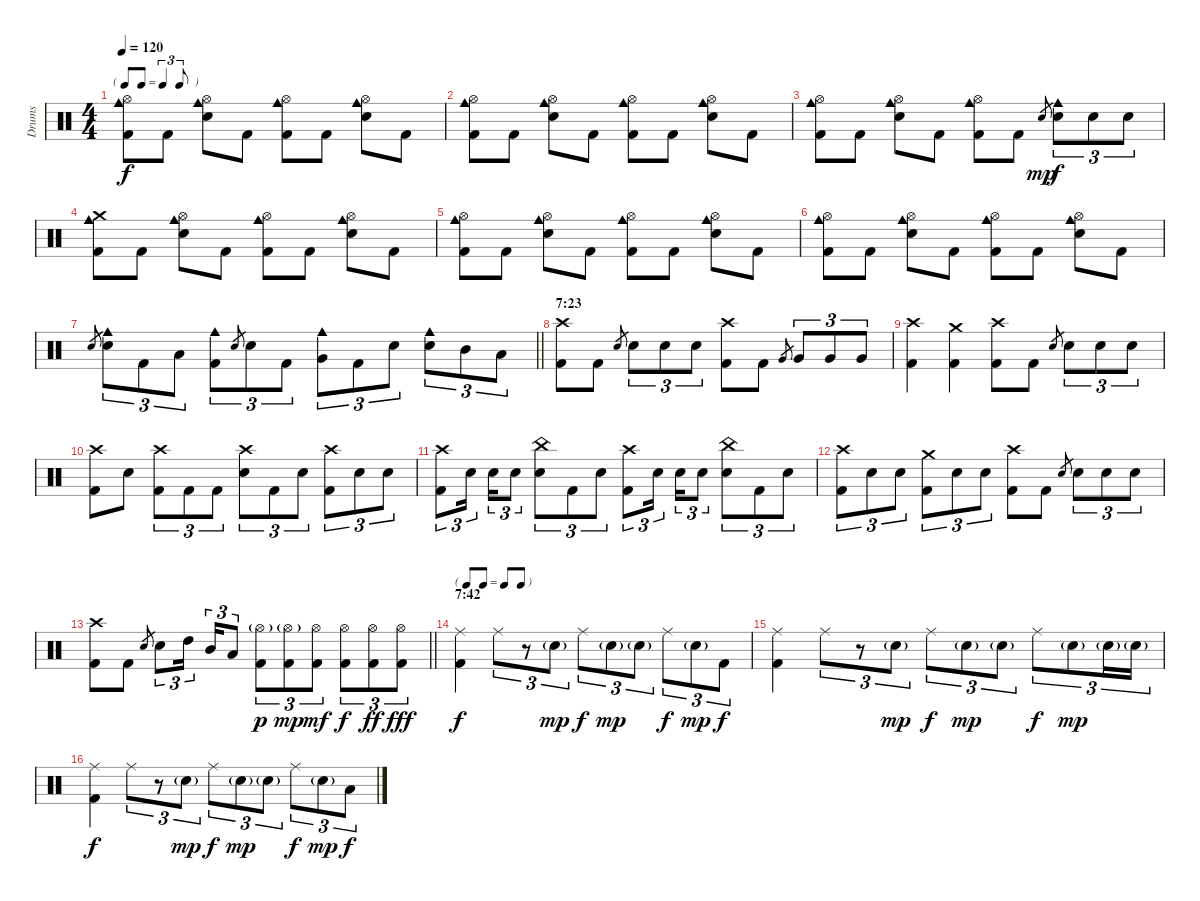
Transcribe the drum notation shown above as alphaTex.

\track ("Drums" "Drums") {instrument percussion}
\staff {score}
\articulation defaults
\ts (4 4)
\tf triplet8th
\tempo 120
\clef neutral
\ks c
("Hi-Hat (open)" "Cowbell medium (hit)" "Kick (hit) 2").8{dy f} "Kick (hit) 2".8 ("Hi-Hat (open)" "Cowbell medium (hit)" "Electric Snare (hit)").8 "Kick (hit) 2".8 ("Hi-Hat (open)" "Cowbell medium (hit)" "Kick (hit) 2").8 "Kick (hit) 2".8 ("Hi-Hat (open)" "Cowbell medium (hit)" "Electric Snare (hit)").8 "Kick (hit) 2".8 |
("Hi-Hat (open)" "Cowbell medium (hit)" "Kick (hit) 2").8 "Kick (hit) 2".8 ("Hi-Hat (open)" "Cowbell medium (hit)" "Electric Snare (hit)").8 "Kick (hit) 2".8 ("Hi-Hat (open)" "Cowbell medium (hit)" "Kick (hit) 2").8 "Kick (hit) 2".8 ("Hi-Hat (open)" "Cowbell medium (hit)" "Electric Snare (hit)").8 "Kick (hit) 2".8 |
("Hi-Hat (open)" "Cowbell medium (hit)" "Kick (hit) 2").8 "Kick (hit) 2".8 ("Hi-Hat (open)" "Cowbell medium (hit)" "Electric Snare (hit)").8 "Kick (hit) 2".8 ("Hi-Hat (open)" "Cowbell medium (hit)" "Kick (hit) 2").8 "Kick (hit) 2".8 "Electric Snare (hit)".8{gr dy mp} ("Cowbell medium (hit)" "Electric Snare (hit)").8{tu (3 2) dy f} "Electric Snare (hit)".8{tu (3 2)} "Electric Snare (hit)".8{tu (3 2)} |
("Crash medium (hit)" "Cowbell medium (hit)" "Kick (hit) 2").8 "Kick (hit) 2".8 ("Hi-Hat (open)" "Cowbell medium (hit)" "Electric Snare (hit)").8 "Kick (hit) 2".8 ("Hi-Hat (open)" "Cowbell medium (hit)" "Kick (hit) 2").8 "Kick (hit) 2".8 ("Hi-Hat (open)" "Cowbell medium (hit)" "Electric Snare (hit)").8 "Kick (hit) 2".8 |
("Hi-Hat (open)" "Cowbell medium (hit)" "Kick (hit) 2").8 "Kick (hit) 2".8 ("Hi-Hat (open)" "Cowbell medium (hit)" "Electric Snare (hit)").8 "Kick (hit) 2".8 ("Hi-Hat (open)" "Cowbell medium (hit)" "Kick (hit) 2").8 "Kick (hit) 2".8 ("Hi-Hat (open)" "Cowbell medium (hit)" "Electric Snare (hit)").8 "Kick (hit) 2".8 |
("Hi-Hat (open)" "Cowbell medium (hit)" "Kick (hit) 2").8 "Kick (hit) 2".8 ("Hi-Hat (open)" "Cowbell medium (hit)" "Electric Snare (hit)").8 "Kick (hit) 2".8 ("Hi-Hat (open)" "Cowbell medium (hit)" "Kick (hit) 2").8 "Kick (hit) 2".8 ("Hi-Hat (open)" "Cowbell medium (hit)" "Electric Snare (hit)").8 "Kick (hit) 2".8 |
\barLineRight lightlight "Electric Snare (hit)".8{gr}
("Cowbell medium (hit)" "Electric Snare (hit)").8{tu (3 2)} "Kick (hit) 2".8{tu (3 2)} "Low Tom (hit)".8{tu (3 2)} ("Cowbell medium (hit)" "Kick (hit) 2").8{tu (3 2)} "Electric Snare (hit)".8{gr} "Electric Snare (hit)".8{tu (3 2)} "Kick (hit) 2".8{tu (3 2)} ("Cowbell medium (hit)" "Very Low Tom (hit)").8{tu (3 2)} "Kick (hit) 2".8{tu (3 2)} "Electric Snare (hit)".8{tu (3 2)} ("Cowbell medium (hit)" "Electric Snare (hit)").8{tu (3 2)} "Mid Tom (hit)".8{tu (3 2)} "Low Tom (hit)".8{tu (3 2)} |
\section ("" "7:23")
("Crash high (hit)" "Kick (hit) 2").8 "Kick (hit) 2".8 "Electric Snare (hit)".8{gr} "Electric Snare (hit)".8{tu (3 2)} "Electric Snare (hit)".8{tu (3 2)} "Electric Snare (hit)".8{tu (3 2)} ("Crash high (hit)" "Kick (hit) 2").8 "Kick (hit) 2".8 "Very Low Tom (hit)".8{gr} "Very Low Tom (hit)".8{tu (3 2)} "Very Low Tom (hit)".8{tu (3 2)} "Very Low Tom (hit)".8{tu (3 2)} |
("Crash high (hit)" "Kick (hit) 2").4 ("Crash medium (hit)" "Kick (hit) 2").4 ("Crash high (hit)" "Kick (hit) 2").8 "Kick (hit) 2".8 "Electric Snare (hit)".8{gr} "Electric Snare (hit)".8{tu (3 2)} "Electric Snare (hit)".8{tu (3 2)} "Electric Snare (hit)".8{tu (3 2)} |
("Crash high (hit)" "Kick (hit) 2").8 "Electric Snare (hit)".8 ("Crash high (hit)" "Kick (hit) 2").8{tu (3 2)} "Kick (hit) 2".8{tu (3 2)} "Kick (hit) 2".8{tu (3 2)} ("Crash high (hit)" "Electric Snare (hit)").8{tu (3 2)} "Kick (hit) 2".8{tu (3 2)} "Electric Snare (hit)".8{tu (3 2)} ("Crash high (hit)" "Kick (hit) 2").8{tu (3 2)} "Electric Snare (hit)".8{tu (3 2)} "Electric Snare (hit)".8{tu (3 2)} |
("Crash high (hit)" "Kick (hit) 2").8{tu (3 2)} "Electric Snare (hit)".16{tu (3 2)} "Electric Snare (hit)".16{tu (3 2)} "Electric Snare (hit)".8{tu (3 2)} ("China (hit)" "Electric Snare (hit)").8{tu (3 2)} "Kick (hit) 2".8{tu (3 2)} "Electric Snare (hit)".8{tu (3 2)} ("Crash high (hit)" "Kick (hit) 2").8{tu (3 2)} "Electric Snare (hit)".16{tu (3 2)} "Electric Snare (hit)".16{tu (3 2)} "Electric Snare (hit)".8{tu (3 2)} ("China (hit)" "Electric Snare (hit)").8{tu (3 2)} "Kick (hit) 2".8{tu (3 2)} "Electric Snare (hit)".8{tu (3 2)} |
("Crash high (hit)" "Kick (hit) 2").8{tu (3 2)} "Electric Snare (hit)".8{tu (3 2)} "Electric Snare (hit)".8{tu (3 2)} ("Crash medium (hit)" "Kick (hit) 2").8{tu (3 2)} "Electric Snare (hit)".8{tu (3 2)} "Electric Snare (hit)".8{tu (3 2)} ("Crash high (hit)" "Kick (hit) 2").8 "Kick (hit) 2".8 "Electric Snare (hit)".8{gr} "Electric Snare (hit)".8{tu (3 2)} "Electric Snare (hit)".8{tu (3 2)} "Electric Snare (hit)".8{tu (3 2)} |
\barLineRight lightlight
("Crash high (hit)" "Kick (hit) 2").8 "Kick (hit) 2".8 "Electric Snare (hit)".8{gr} "Electric Snare (hit)".8{tu (3 2)} "High Tom (hit)".16{tu (3 2)} "Mid Tom (hit)".16{tu (3 2)} "Low Tom (hit)".8{tu (3 2)} ("Hi-Hat (open)"{g} "Kick (hit) 2").8{tu (3 2) dy p} ("Hi-Hat (open)"{g} "Kick (hit) 2").8{tu (3 2) dy mp} ("Hi-Hat (open)" "Kick (hit) 2").8{tu (3 2) dy mf} ("Hi-Hat (open)" "Kick (hit) 2").8{tu (3 2) dy f} ("Hi-Hat (open)" "Kick (hit) 2").8{tu (3 2) dy ff} ("Hi-Hat (open)" "Kick (hit) 2").8{tu (3 2) dy fff} |
\tf none
\section ("" "7:42")
("Ride (middle)" "Kick (hit) 2").4{dy f} "Ride (middle)".8{tu (3 2)} r.8{tu (3 2)} "Snare (hit) 2"{g}.8{tu (3 2) dy mp} "Ride (middle)".8{tu (3 2) dy f} "Snare (hit) 2"{g}.8{tu (3 2) dy mp} "Snare (hit) 2"{g}.8{tu (3 2)} "Ride (middle)".8{tu (3 2) dy f} "Snare (hit) 2"{g}.8{tu (3 2) dy mp} "Kick (hit) 2".8{tu (3 2) dy f} |
("Ride (middle)" "Kick (hit) 2").4 "Ride (middle)".8{tu (3 2)} r.8{tu (3 2)} "Snare (hit) 2"{g}.8{tu (3 2) dy mp} "Ride (middle)".8{tu (3 2) dy f} "Snare (hit) 2"{g}.8{tu (3 2) dy mp} "Snare (hit) 2"{g}.8{tu (3 2)} "Ride (middle)".8{tu (3 2) dy f} "Snare (hit) 2"{g}.8{tu (3 2) dy mp} "Snare (hit) 2"{g}.16{tu (3 2)} "Snare (hit) 2"{g}.16{tu (3 2)} |
("Ride (middle)" "Kick (hit) 2").4{dy f} "Ride (middle)".8{tu (3 2)} r.8{tu (3 2)} "Snare (hit) 2"{g}.8{tu (3 2) dy mp} "Ride (middle)".8{tu (3 2) dy f} "Snare (hit) 2"{g}.8{tu (3 2) dy mp} "Snare (hit) 2"{g}.8{tu (3 2)} "Ride (middle)".8{tu (3 2) dy f} "Snare (hit) 2"{g}.8{tu (3 2) dy mp} "Low Tom (hit)".8{tu (3 2) dy f}
